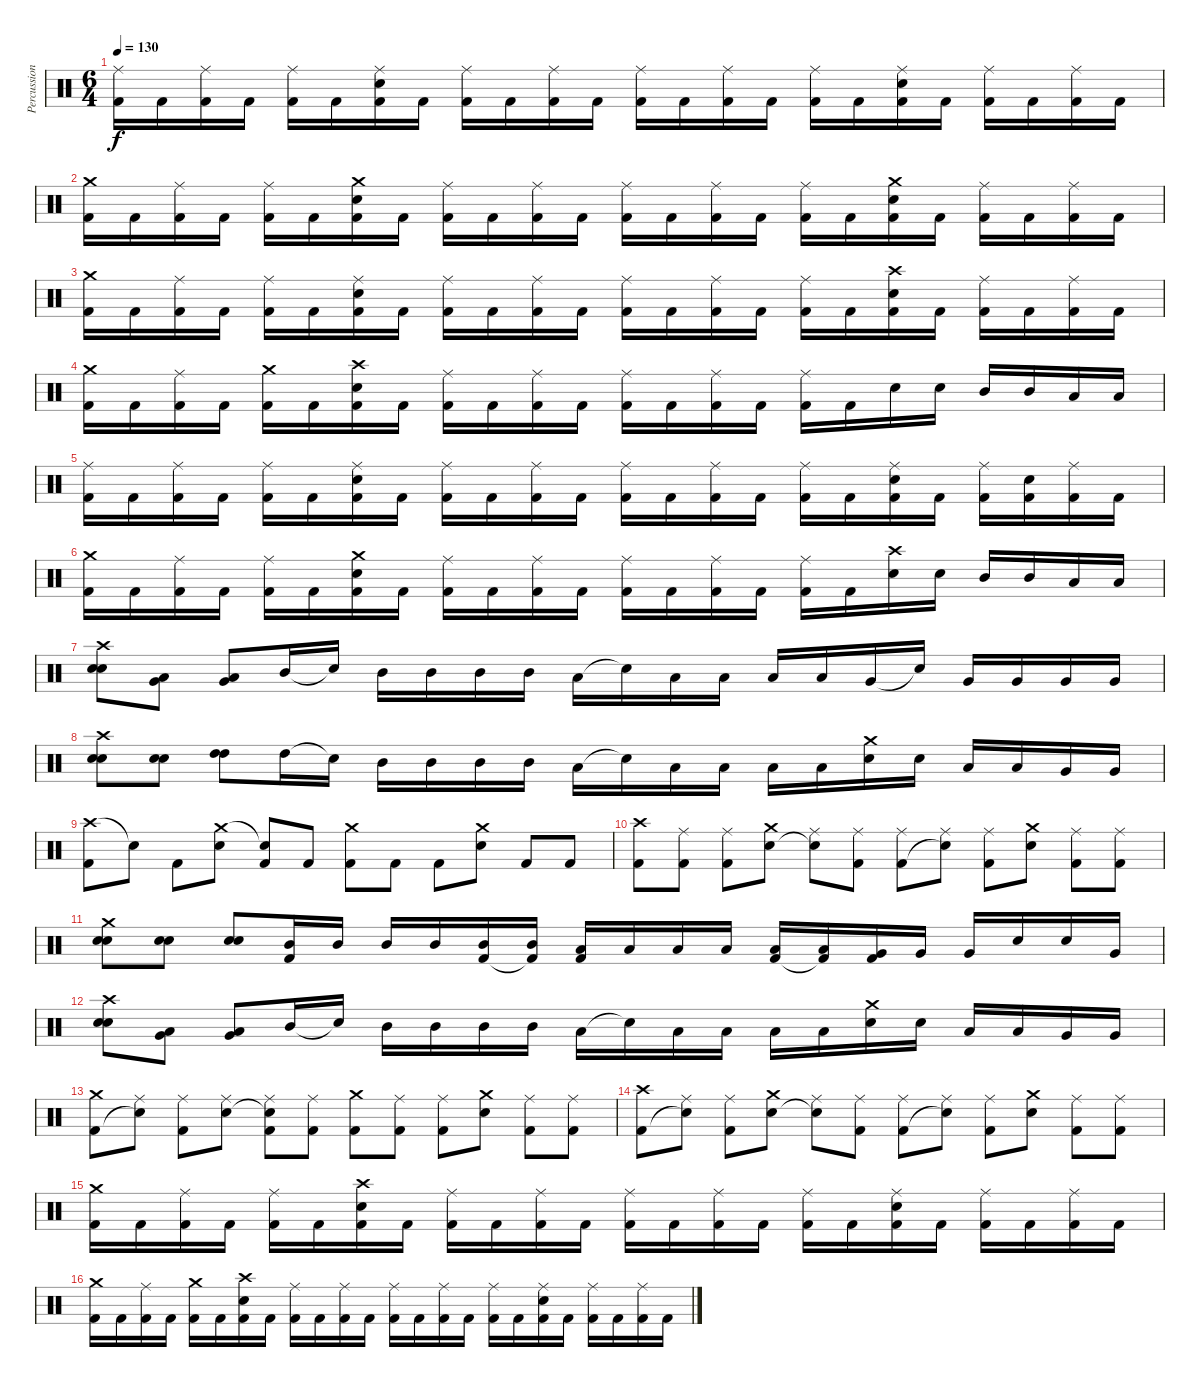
\track ("Percussion" "Percussion") {instrument percussion}
\staff {score}
\articulation defaults
\ts (6 4)
\tempo 130
\clef neutral
\ks c
("Ride (middle)" "Kick (hit) 2").16{dy f} "Kick (hit) 2".16 ("Ride (middle)" "Kick (hit) 2").16 "Kick (hit) 2".16 ("Ride (middle)" "Kick (hit) 2").16 "Kick (hit) 2".16 ("Ride (middle)" "Snare (hit) 2" "Kick (hit) 2").16 "Kick (hit) 2".16 ("Ride (middle)" "Kick (hit) 2").16 "Kick (hit) 2".16 ("Ride (middle)" "Kick (hit) 2").16 "Kick (hit) 2".16 ("Ride (middle)" "Kick (hit) 2").16 "Kick (hit) 2".16 ("Ride (middle)" "Kick (hit) 2").16 "Kick (hit) 2".16 ("Ride (middle)" "Kick (hit) 2").16 "Kick (hit) 2".16 ("Ride (middle)" "Snare (hit) 2" "Kick (hit) 2").16 "Kick (hit) 2".16 ("Ride (middle)" "Kick (hit) 2").16 "Kick (hit) 2".16 ("Ride (middle)" "Kick (hit) 2").16 "Kick (hit) 2".16 |
("Crash medium (hit)" "Kick (hit) 2").16 "Kick (hit) 2".16 ("Ride (middle)" "Kick (hit) 2").16 "Kick (hit) 2".16 ("Ride (middle)" "Kick (hit) 2").16 "Kick (hit) 2".16 ("Crash medium (hit)" "Snare (hit) 2" "Kick (hit) 2").16 "Kick (hit) 2".16 ("Ride (middle)" "Kick (hit) 2").16 "Kick (hit) 2".16 ("Ride (middle)" "Kick (hit) 2").16 "Kick (hit) 2".16 ("Ride (middle)" "Kick (hit) 2").16 "Kick (hit) 2".16 ("Ride (middle)" "Kick (hit) 2").16 "Kick (hit) 2".16 ("Ride (middle)" "Kick (hit) 2").16 "Kick (hit) 2".16 ("Crash medium (hit)" "Snare (hit) 2" "Kick (hit) 2").16 "Kick (hit) 2".16 ("Ride (middle)" "Kick (hit) 2").16 "Kick (hit) 2".16 ("Ride (middle)" "Kick (hit) 2").16 "Kick (hit) 2".16 |
("Crash medium (hit)" "Kick (hit) 2").16 "Kick (hit) 2".16 ("Ride (middle)" "Kick (hit) 2").16 "Kick (hit) 2".16 ("Ride (middle)" "Kick (hit) 2").16 "Kick (hit) 2".16 ("Ride (middle)" "Snare (hit) 2" "Kick (hit) 2").16 "Kick (hit) 2".16 ("Ride (middle)" "Kick (hit) 2").16 "Kick (hit) 2".16 ("Ride (middle)" "Kick (hit) 2").16 "Kick (hit) 2".16 ("Ride (middle)" "Kick (hit) 2").16 "Kick (hit) 2".16 ("Ride (middle)" "Kick (hit) 2").16 "Kick (hit) 2".16 ("Ride (middle)" "Kick (hit) 2").16 "Kick (hit) 2".16 ("Crash high (hit)" "Snare (hit) 2" "Kick (hit) 2").16 "Kick (hit) 2".16 ("Ride (middle)" "Kick (hit) 2").16 "Kick (hit) 2".16 ("Ride (middle)" "Kick (hit) 2").16 "Kick (hit) 2".16 |
("Crash medium (hit)" "Kick (hit) 2").16 "Kick (hit) 2".16 ("Ride (middle)" "Kick (hit) 2").16 "Kick (hit) 2".16 ("Crash medium (hit)" "Kick (hit) 2").16 "Kick (hit) 2".16 ("Crash high (hit)" "Snare (hit) 2" "Kick (hit) 2").16 "Kick (hit) 2".16 ("Ride (middle)" "Kick (hit) 2").16 "Kick (hit) 2".16 ("Ride (middle)" "Kick (hit) 2").16 "Kick (hit) 2".16 ("Ride (middle)" "Kick (hit) 2").16 "Kick (hit) 2".16 ("Ride (middle)" "Kick (hit) 2").16 "Kick (hit) 2".16 ("Ride (middle)" "Kick (hit) 2").16 "Kick (hit) 2".16 "Snare (hit) 2".16 "Snare (hit) 2".16 "Mid Tom (hit)".16 "Mid Tom (hit)".16 "Low Tom (hit)".16 "Low Tom (hit)".16 |
("Ride (middle)" "Kick (hit) 2").16 "Kick (hit) 2".16 ("Ride (middle)" "Kick (hit) 2").16 "Kick (hit) 2".16 ("Ride (middle)" "Kick (hit) 2").16 "Kick (hit) 2".16 ("Ride (middle)" "Snare (hit) 2" "Kick (hit) 2").16 "Kick (hit) 2".16 ("Ride (middle)" "Kick (hit) 2").16 "Kick (hit) 2".16 ("Ride (middle)" "Kick (hit) 2").16 "Kick (hit) 2".16 ("Ride (middle)" "Kick (hit) 2").16 "Kick (hit) 2".16 ("Ride (middle)" "Kick (hit) 2").16 "Kick (hit) 2".16 ("Ride (middle)" "Kick (hit) 2").16 "Kick (hit) 2".16 ("Ride (middle)" "Snare (hit) 2" "Kick (hit) 2").16 "Kick (hit) 2".16 ("Ride (middle)" "Kick (hit) 2").16 ("Snare (hit) 2" "Kick (hit) 2").16 ("Ride (middle)" "Kick (hit) 2").16 "Kick (hit) 2".16 |
("Crash medium (hit)" "Kick (hit) 2").16 "Kick (hit) 2".16 ("Ride (middle)" "Kick (hit) 2").16 "Kick (hit) 2".16 ("Ride (middle)" "Kick (hit) 2").16 "Kick (hit) 2".16 ("Crash medium (hit)" "Snare (hit) 2" "Kick (hit) 2").16 "Kick (hit) 2".16 ("Ride (middle)" "Kick (hit) 2").16 "Kick (hit) 2".16 ("Ride (middle)" "Kick (hit) 2").16 "Kick (hit) 2".16 ("Ride (middle)" "Kick (hit) 2").16 "Kick (hit) 2".16 ("Ride (middle)" "Kick (hit) 2").16 "Kick (hit) 2".16 ("Ride (middle)" "Kick (hit) 2").16 "Kick (hit) 2".16 ("Crash high (hit)" "Snare (hit) 2").16 "Snare (hit) 2".16 "Mid Tom (hit)".16 "Mid Tom (hit)".16 "Low Tom (hit)".16 "Low Tom (hit)".16 |
("Snare (hit) 2" "Snare (hit) 2" "Crash high (hit)").8{bd 60} ("Very Low Tom (hit)" "Low Tom (hit)").8{bd 60} ("Very Low Tom (hit)" "Low Tom (hit)").8{bd 60} "Mid Tom (hit)".16 "Snare (hit)"{t}.16 "Mid Tom (hit)".16 "Mid Tom (hit)".16 "Mid Tom (hit)".16 "Mid Tom (hit)".16 "Low Tom (hit)".16 "Snare (hit)"{t}.16 "Low Tom (hit)".16 "Low Tom (hit)".16 "Low Tom (hit)".16 "Low Tom (hit)".16 "Very Low Tom (hit)".16 "Snare (hit)"{t}.16 "Very Low Tom (hit)".16 "Very Low Tom (hit)".16 "Very Low Tom (hit)".16 "Very Low Tom (hit)".16 |
("Snare (hit) 2" "Snare (hit) 2" "Crash high (hit)").8{bd 60} ("Snare (hit) 2" "Snare (hit) 2").8{bd 60} ("High Tom (hit)" "High Tom (hit)").8{bd 60} "High Tom (hit)".16 "Snare (hit)"{t}.16 "Mid Tom (hit)".16 "Mid Tom (hit)".16 "Mid Tom (hit)".16 "Mid Tom (hit)".16 "Low Tom (hit)".16 "Snare (hit)"{t}.16 "Low Tom (hit)".16 "Low Tom (hit)".16 "Low Tom (hit)".16 "Low Tom (hit)".16 ("Crash medium (hit)" "Snare (hit) 2").16 "Snare (hit) 2".16 "Low Tom (hit)".16 "Low Tom (hit)".16 "Very Low Tom (hit)".16 "Very Low Tom (hit)".16 |
("Crash high (hit)" "Kick (hit) 2").8 "Snare (hit)"{t}.8 "Kick (hit) 2".8 ("Crash medium (hit)" "Snare (hit) 2").8 ("Snare (hit)"{t} "Kick (hit) 2").8 "Kick (hit) 2".8 ("Crash medium (hit)" "Kick (hit) 2").8 "Kick (hit) 2".8 "Kick (hit) 2".8 ("Crash medium (hit)" "Snare (hit) 2").8 "Kick (hit) 2".8 "Kick (hit) 2".8 |
("Crash high (hit)" "Kick (hit) 2").8 ("Ride (middle)" "Kick (hit) 2").8 ("Ride (middle)" "Kick (hit) 2").8 ("Crash medium (hit)" "Snare (hit) 2").8 ("Ride (middle)" "Snare (hit)"{t}).8 ("Ride (middle)" "Kick (hit) 2").8 ("Ride (middle)" "Kick (hit) 2").8 ("Ride (middle)" "Snare (hit)"{t}).8 ("Ride (middle)" "Kick (hit) 2").8 ("Crash medium (hit)" "Snare (hit) 2").8 ("Ride (middle)" "Kick (hit) 2").8 ("Ride (middle)" "Kick (hit) 2").8 |
("Snare (hit) 2" "Snare (hit) 2" "Crash medium (hit)").8{bd 60} ("Snare (hit) 2" "Snare (hit) 2").8{bd 60} ("Snare (hit) 2" "Snare (hit) 2").8{bd 60} ("Mid Tom (hit)" "Kick (hit) 2").16 "Mid Tom (hit)".16 "Mid Tom (hit)".16 "Mid Tom (hit)".16 ("Mid Tom (hit)" "Kick (hit) 2").16 ("Mid Tom (hit)" "Kick (hit) 2"{t}).16 ("Low Tom (hit)" "Kick (hit) 2").16 "Low Tom (hit)".16 "Low Tom (hit)".16 "Low Tom (hit)".16 ("Low Tom (hit)" "Kick (hit) 2").16 ("Low Tom (hit)" "Kick (hit) 2"{t}).16 ("Very Low Tom (hit)" "Kick (hit) 2").16 "Very Low Tom (hit)".16 "Very Low Tom (hit)".16 "Snare (hit) 2".16 "Snare (hit) 2".16 "Very Low Tom (hit)".16 |
("Snare (hit) 2" "Snare (hit) 2" "Crash high (hit)").8{bd 60} ("Very Low Tom (hit)" "Low Tom (hit)").8{bd 60} ("Very Low Tom (hit)" "Low Tom (hit)").8{bd 60} "Mid Tom (hit)".16 "Snare (hit)"{t}.16 "Mid Tom (hit)".16 "Mid Tom (hit)".16 "Mid Tom (hit)".16 "Mid Tom (hit)".16 "Low Tom (hit)".16 "Snare (hit)"{t}.16 "Low Tom (hit)".16 "Low Tom (hit)".16 "Low Tom (hit)".16 "Low Tom (hit)".16 ("Crash medium (hit)" "Snare (hit) 2").16 "Snare (hit) 2".16 "Low Tom (hit)".16 "Low Tom (hit)".16 "Very Low Tom (hit)".16 "Very Low Tom (hit)".16 |
("Crash medium (hit)" "Kick (hit) 2").8 ("Ride (middle)" "Snare (hit)"{t}).8 ("Ride (middle)" "Kick (hit) 2").8 ("Ride (middle)" "Snare (hit) 2").8 ("Ride (middle)" "Snare (hit)"{t} "Kick (hit) 2").8 ("Ride (middle)" "Kick (hit) 2").8 ("Crash medium (hit)" "Kick (hit) 2").8 ("Ride (middle)" "Kick (hit) 2").8 ("Ride (middle)" "Kick (hit) 2").8 ("Crash medium (hit)" "Snare (hit) 2").8 ("Ride (middle)" "Kick (hit) 2").8 ("Ride (middle)" "Kick (hit) 2").8 |
("Crash high (hit)" "Kick (hit) 2").8 ("Ride (middle)" "Snare (hit)"{t}).8 ("Ride (middle)" "Kick (hit) 2").8 ("Crash medium (hit)" "Snare (hit) 2").8 ("Ride (middle)" "Snare (hit)"{t}).8 ("Ride (middle)" "Kick (hit) 2").8 ("Ride (middle)" "Kick (hit) 2").8 ("Ride (middle)" "Snare (hit)"{t}).8 ("Ride (middle)" "Kick (hit) 2").8 ("Crash medium (hit)" "Snare (hit) 2").8 ("Ride (middle)" "Kick (hit) 2").8 ("Ride (middle)" "Kick (hit) 2").8 |
("Crash medium (hit)" "Kick (hit) 2").16 "Kick (hit) 2".16 ("Ride (middle)" "Kick (hit) 2").16 "Kick (hit) 2".16 ("Ride (middle)" "Kick (hit) 2").16 "Kick (hit) 2".16 ("Crash high (hit)" "Snare (hit) 2" "Kick (hit) 2").16 "Kick (hit) 2".16 ("Ride (middle)" "Kick (hit) 2").16 "Kick (hit) 2".16 ("Ride (middle)" "Kick (hit) 2").16 "Kick (hit) 2".16 ("Ride (middle)" "Kick (hit) 2").16 "Kick (hit) 2".16 ("Ride (middle)" "Kick (hit) 2").16 "Kick (hit) 2".16 ("Ride (middle)" "Kick (hit) 2").16 "Kick (hit) 2".16 ("Ride (middle)" "Snare (hit) 2" "Kick (hit) 2").16 "Kick (hit) 2".16 ("Ride (middle)" "Kick (hit) 2").16 "Kick (hit) 2".16 ("Ride (middle)" "Kick (hit) 2").16 "Kick (hit) 2".16 |
("Crash medium (hit)" "Kick (hit) 2").16 "Kick (hit) 2".16 ("Ride (middle)" "Kick (hit) 2").16 "Kick (hit) 2".16 ("Crash medium (hit)" "Kick (hit) 2").16 "Kick (hit) 2".16 ("Crash high (hit)" "Snare (hit) 2" "Kick (hit) 2").16 "Kick (hit) 2".16 ("Ride (middle)" "Kick (hit) 2").16 "Kick (hit) 2".16 ("Ride (middle)" "Kick (hit) 2").16 "Kick (hit) 2".16 ("Ride (middle)" "Kick (hit) 2").16 "Kick (hit) 2".16 ("Ride (middle)" "Kick (hit) 2").16 "Kick (hit) 2".16 ("Ride (middle)" "Kick (hit) 2").16 "Kick (hit) 2".16 ("Ride (middle)" "Snare (hit) 2" "Kick (hit) 2").16 "Kick (hit) 2".16 ("Ride (middle)" "Kick (hit) 2").16 "Kick (hit) 2".16 ("Ride (middle)" "Kick (hit) 2").16 "Kick (hit) 2".16
